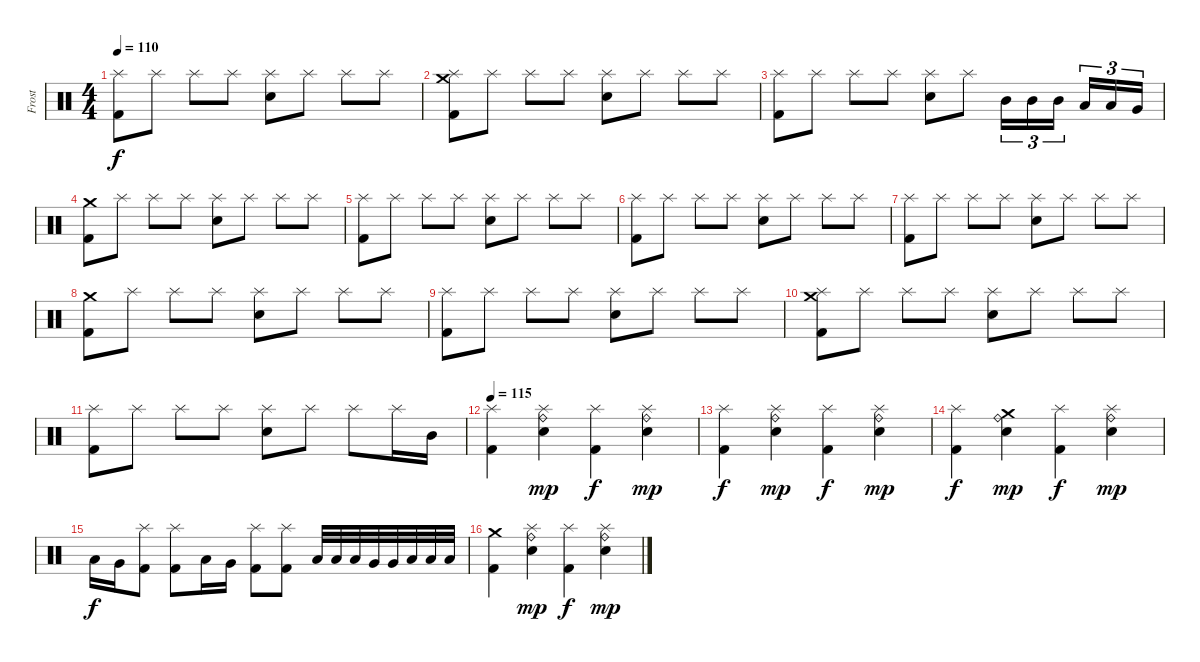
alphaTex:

\track ("Frost" "Frost") {instrument percussion}
\staff {score}
\articulation defaults
\ts (4 4)
\tempo 110
\clef neutral
\ks c
("Kick (hit) 2" "Splash (hit)").8{dy f} "Splash (hit)".8 "Splash (hit)".8 "Splash (hit)".8 ("Snare (hit) 2" "Splash (hit)").8 "Splash (hit)".8 "Splash (hit)".8 "Splash (hit)".8 |
("Kick (hit) 2" "Crash medium (hit)" "Splash (hit)").8 "Splash (hit)".8 "Splash (hit)".8 "Splash (hit)".8 ("Snare (hit) 2" "Splash (hit)").8 "Splash (hit)".8 "Splash (hit)".8 "Splash (hit)".8 |
("Kick (hit) 2" "Splash (hit)").8 "Splash (hit)".8 "Splash (hit)".8 "Splash (hit)".8 ("Snare (hit) 2" "Splash (hit)").8 "Splash (hit)".8 "Mid Tom (hit)".16{tu (3 2)} "Mid Tom (hit)".16{tu (3 2)} "Mid Tom (hit)".16{tu (3 2)} "Low Tom (hit)".16{tu (3 2)} "Low Tom (hit)".16{tu (3 2)} "Very Low Tom (hit)".16{tu (3 2)} |
("Kick (hit) 2" "Crash medium (hit)").8 "Splash (hit)".8 "Splash (hit)".8 "Splash (hit)".8 ("Snare (hit) 2" "Splash (hit)").8 "Splash (hit)".8 "Splash (hit)".8 "Splash (hit)".8 |
("Kick (hit) 2" "Splash (hit)").8 "Splash (hit)".8 "Splash (hit)".8 "Splash (hit)".8 ("Snare (hit) 2" "Splash (hit)").8 "Splash (hit)".8 "Splash (hit)".8 "Splash (hit)".8 |
("Kick (hit) 2" "Splash (hit)").8 "Splash (hit)".8 "Splash (hit)".8 "Splash (hit)".8 ("Snare (hit) 2" "Splash (hit)").8 "Splash (hit)".8 "Splash (hit)".8 "Splash (hit)".8 |
("Kick (hit) 2" "Splash (hit)").8 "Splash (hit)".8 "Splash (hit)".8 "Splash (hit)".8 ("Snare (hit) 2" "Splash (hit)").8 "Splash (hit)".8 "Splash (hit)".8 "Splash (hit)".8 |
("Kick (hit) 2" "Crash medium (hit)").8 "Splash (hit)".8 "Splash (hit)".8 "Splash (hit)".8 ("Snare (hit) 2" "Splash (hit)").8 "Splash (hit)".8 "Splash (hit)".8 "Splash (hit)".8 |
("Kick (hit) 2" "Splash (hit)").8 "Splash (hit)".8 "Splash (hit)".8 "Splash (hit)".8 ("Snare (hit) 2" "Splash (hit)").8 "Splash (hit)".8 "Splash (hit)".8 "Splash (hit)".8 |
("Kick (hit) 2" "Crash medium (hit)" "Splash (hit)").8 "Splash (hit)".8 "Splash (hit)".8 "Splash (hit)".8 ("Snare (hit) 2" "Splash (hit)").8 "Splash (hit)".8 "Splash (hit)".8 "Splash (hit)".8 |
("Kick (hit) 2" "Splash (hit)").8 "Splash (hit)".8 "Splash (hit)".8 "Splash (hit)".8 ("Snare (hit) 2" "Splash (hit)").8 "Splash (hit)".8 "Splash (hit)".8 "Splash (hit)".16 "Mid Tom (hit)".16 |
\tempo 115
("Kick (hit) 2" "Splash (hit)").4 ("Snare (hit) 2" "Splash (hit)" "Ride (bell)").4{dy mp} ("Kick (hit) 2" "Splash (hit)").4{dy f} ("Snare (hit) 2" "Splash (hit)" "Ride (bell)").4{dy mp} |
("Kick (hit) 2" "Splash (hit)").4{dy f} ("Snare (hit) 2" "Splash (hit)" "Ride (bell)").4{dy mp} ("Kick (hit) 2" "Splash (hit)").4{dy f} ("Snare (hit) 2" "Splash (hit)" "Ride (bell)").4{dy mp} |
("Kick (hit) 2" "Splash (hit)").4{dy f} ("Snare (hit) 2" "Crash medium (hit)" "Ride (bell)").4{dy mp} ("Kick (hit) 2" "Splash (hit)").4{dy f} ("Snare (hit) 2" "Splash (hit)" "Ride (bell)").4{dy mp} |
"Low Tom (hit)".16{dy f} "Very Low Tom (hit)".16 ("Kick (hit) 2" "Splash (hit)").8 ("Kick (hit) 2" "Splash (hit)").8 "Low Tom (hit)".16 "Very Low Tom (hit)".16 ("Kick (hit) 2" "Splash (hit)").8 ("Kick (hit) 2" "Splash (hit)").8 "Low Tom (hit)".32 "Low Tom (hit)".32 "Low Tom (hit)".32 "Very Low Tom (hit)".32 "Very Low Tom (hit)".32 "Low Floor Tom (hit)".32 "Low Floor Tom (hit)".32 "Low Floor Tom (hit)".32 |
("Kick (hit) 2" "Crash medium (hit)").4 ("Snare (hit) 2" "Splash (hit)" "Ride (bell)").4{dy mp} ("Kick (hit) 2" "Splash (hit)").4{dy f} ("Snare (hit) 2" "Splash (hit)" "Ride (bell)").4{dy mp}
